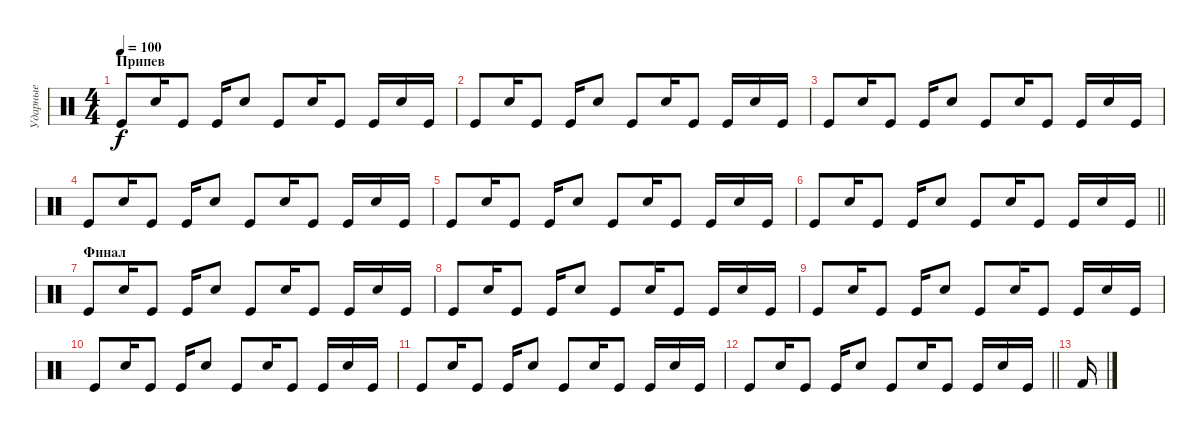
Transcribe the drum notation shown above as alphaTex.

\track ("Ударные" "Ударные") {instrument percussion}
\staff {score}
\articulation defaults
\ts (4 4)
\section ("" "Припев")
\tempo 100
\clef neutral
\ks c "Kick (hit)".8{dy f} "Snare (hit) 2".16 "Kick (hit)".8 "Kick (hit)".16 "Snare (hit) 2".8 "Kick (hit)".8 "Snare (hit) 2".16 "Kick (hit)".8 "Kick (hit)".16 "Snare (hit) 2".16 "Kick (hit)".16
|
"Kick (hit)".8 "Snare (hit) 2".16 "Kick (hit)".8 "Kick (hit)".16 "Snare (hit) 2".8 "Kick (hit)".8 "Snare (hit) 2".16 "Kick (hit)".8 "Kick (hit)".16 "Snare (hit) 2".16 "Kick (hit)".16 |
"Kick (hit)".8 "Snare (hit) 2".16 "Kick (hit)".8 "Kick (hit)".16 "Snare (hit) 2".8 "Kick (hit)".8 "Snare (hit) 2".16 "Kick (hit)".8 "Kick (hit)".16 "Snare (hit) 2".16 "Kick (hit)".16 |
"Kick (hit)".8 "Snare (hit) 2".16 "Kick (hit)".8 "Kick (hit)".16 "Snare (hit) 2".8 "Kick (hit)".8 "Snare (hit) 2".16 "Kick (hit)".8 "Kick (hit)".16 "Snare (hit) 2".16 "Kick (hit)".16 |
"Kick (hit)".8 "Snare (hit) 2".16 "Kick (hit)".8 "Kick (hit)".16 "Snare (hit) 2".8 "Kick (hit)".8 "Snare (hit) 2".16 "Kick (hit)".8 "Kick (hit)".16 "Snare (hit) 2".16 "Kick (hit)".16 |
\barLineRight lightlight "Kick (hit)".8 "Snare (hit) 2".16 "Kick (hit)".8 "Kick (hit)".16 "Snare (hit) 2".8 "Kick (hit)".8 "Snare (hit) 2".16 "Kick (hit)".8 "Kick (hit)".16 "Snare (hit) 2".16 "Kick (hit)".16
|
\section ("" "Финал")
"Kick (hit)".8 "Snare (hit) 2".16 "Kick (hit)".8 "Kick (hit)".16 "Snare (hit) 2".8 "Kick (hit)".8 "Snare (hit) 2".16 "Kick (hit)".8 "Kick (hit)".16 "Snare (hit) 2".16 "Kick (hit)".16 |
"Kick (hit)".8 "Snare (hit) 2".16 "Kick (hit)".8 "Kick (hit)".16 "Snare (hit) 2".8 "Kick (hit)".8 "Snare (hit) 2".16 "Kick (hit)".8 "Kick (hit)".16 "Snare (hit) 2".16 "Kick (hit)".16 |
"Kick (hit)".8 "Snare (hit) 2".16 "Kick (hit)".8 "Kick (hit)".16 "Snare (hit) 2".8 "Kick (hit)".8 "Snare (hit) 2".16 "Kick (hit)".8 "Kick (hit)".16 "Snare (hit) 2".16 "Kick (hit)".16 |
"Kick (hit)".8 "Snare (hit) 2".16 "Kick (hit)".8 "Kick (hit)".16 "Snare (hit) 2".8 "Kick (hit)".8 "Snare (hit) 2".16 "Kick (hit)".8 "Kick (hit)".16 "Snare (hit) 2".16 "Kick (hit)".16 |
"Kick (hit)".8 "Snare (hit) 2".16 "Kick (hit)".8 "Kick (hit)".16 "Snare (hit) 2".8 "Kick (hit)".8 "Snare (hit) 2".16 "Kick (hit)".8 "Kick (hit)".16 "Snare (hit) 2".16 "Kick (hit)".16 |
\barLineRight lightlight "Kick (hit)".8 "Snare (hit) 2".16 "Kick (hit)".8 "Kick (hit)".16 "Snare (hit) 2".8 "Kick (hit)".8 "Snare (hit) 2".16 "Kick (hit)".8 "Kick (hit)".16 "Snare (hit) 2".16 "Kick (hit)".16
|
"Kick (hit) 2".16
